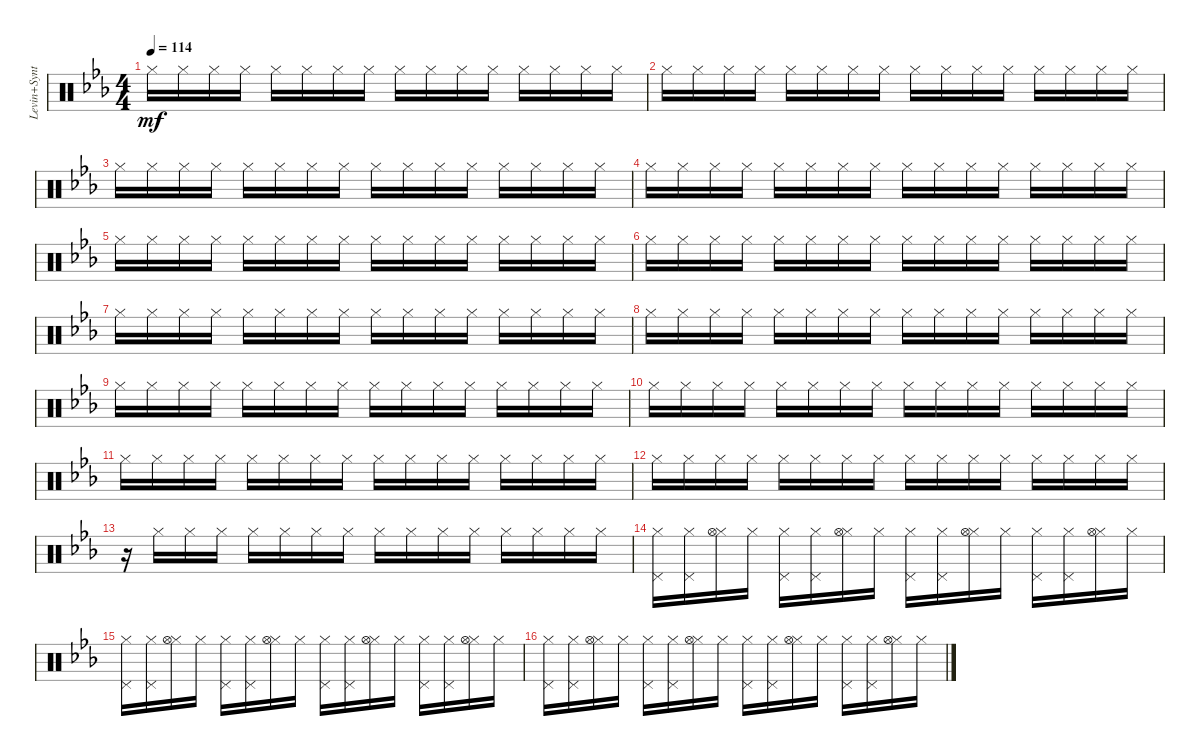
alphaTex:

\track ("Levin+Synth" "Levin+Synt") {instrument percussion}
\staff {score}
\articulation defaults
\ts (4 4)
\tempo 114
\clef neutral
\ks eb "Hi-Hat (closed)".16{dy mf} "Hi-Hat (closed)".16 "Hi-Hat (closed)".16 "Hi-Hat (closed)".16 "Hi-Hat (closed)".16 "Hi-Hat (closed)".16 "Hi-Hat (closed)".16 "Hi-Hat (closed)".16 "Hi-Hat (closed)".16 "Hi-Hat (closed)".16 "Hi-Hat (closed)".16 "Hi-Hat (closed)".16 "Hi-Hat (closed)".16 "Hi-Hat (closed)".16 "Hi-Hat (closed)".16 "Hi-Hat (closed)".16
|
"Hi-Hat (closed)".16 "Hi-Hat (closed)".16 "Hi-Hat (closed)".16 "Hi-Hat (closed)".16 "Hi-Hat (closed)".16 "Hi-Hat (closed)".16 "Hi-Hat (closed)".16 "Hi-Hat (closed)".16 "Hi-Hat (closed)".16 "Hi-Hat (closed)".16 "Hi-Hat (closed)".16 "Hi-Hat (closed)".16 "Hi-Hat (closed)".16 "Hi-Hat (closed)".16 "Hi-Hat (closed)".16 "Hi-Hat (closed)".16 |
"Hi-Hat (closed)".16 "Hi-Hat (closed)".16 "Hi-Hat (closed)".16 "Hi-Hat (closed)".16 "Hi-Hat (closed)".16 "Hi-Hat (closed)".16 "Hi-Hat (closed)".16 "Hi-Hat (closed)".16 "Hi-Hat (closed)".16 "Hi-Hat (closed)".16 "Hi-Hat (closed)".16 "Hi-Hat (closed)".16 "Hi-Hat (closed)".16 "Hi-Hat (closed)".16 "Hi-Hat (closed)".16 "Hi-Hat (closed)".16 |
"Hi-Hat (closed)".16 "Hi-Hat (closed)".16 "Hi-Hat (closed)".16 "Hi-Hat (closed)".16 "Hi-Hat (closed)".16 "Hi-Hat (closed)".16 "Hi-Hat (closed)".16 "Hi-Hat (closed)".16 "Hi-Hat (closed)".16 "Hi-Hat (closed)".16 "Hi-Hat (closed)".16 "Hi-Hat (closed)".16 "Hi-Hat (closed)".16 "Hi-Hat (closed)".16 "Hi-Hat (closed)".16 "Hi-Hat (closed)".16 |
"Hi-Hat (closed)".16 "Hi-Hat (closed)".16 "Hi-Hat (closed)".16 "Hi-Hat (closed)".16 "Hi-Hat (closed)".16 "Hi-Hat (closed)".16 "Hi-Hat (closed)".16 "Hi-Hat (closed)".16 "Hi-Hat (closed)".16 "Hi-Hat (closed)".16 "Hi-Hat (closed)".16 "Hi-Hat (closed)".16 "Hi-Hat (closed)".16 "Hi-Hat (closed)".16 "Hi-Hat (closed)".16 "Hi-Hat (closed)".16 |
"Hi-Hat (closed)".16 "Hi-Hat (closed)".16 "Hi-Hat (closed)".16 "Hi-Hat (closed)".16 "Hi-Hat (closed)".16 "Hi-Hat (closed)".16 "Hi-Hat (closed)".16 "Hi-Hat (closed)".16 "Hi-Hat (closed)".16 "Hi-Hat (closed)".16 "Hi-Hat (closed)".16 "Hi-Hat (closed)".16 "Hi-Hat (closed)".16 "Hi-Hat (closed)".16 "Hi-Hat (closed)".16 "Hi-Hat (closed)".16 |
"Hi-Hat (closed)".16 "Hi-Hat (closed)".16 "Hi-Hat (closed)".16 "Hi-Hat (closed)".16 "Hi-Hat (closed)".16 "Hi-Hat (closed)".16 "Hi-Hat (closed)".16 "Hi-Hat (closed)".16 "Hi-Hat (closed)".16 "Hi-Hat (closed)".16 "Hi-Hat (closed)".16 "Hi-Hat (closed)".16 "Hi-Hat (closed)".16 "Hi-Hat (closed)".16 "Hi-Hat (closed)".16 "Hi-Hat (closed)".16 |
"Hi-Hat (closed)".16 "Hi-Hat (closed)".16 "Hi-Hat (closed)".16 "Hi-Hat (closed)".16 "Hi-Hat (closed)".16 "Hi-Hat (closed)".16 "Hi-Hat (closed)".16 "Hi-Hat (closed)".16 "Hi-Hat (closed)".16 "Hi-Hat (closed)".16 "Hi-Hat (closed)".16 "Hi-Hat (closed)".16 "Hi-Hat (closed)".16 "Hi-Hat (closed)".16 "Hi-Hat (closed)".16 "Hi-Hat (closed)".16 |
"Hi-Hat (closed)".16 "Hi-Hat (closed)".16 "Hi-Hat (closed)".16 "Hi-Hat (closed)".16 "Hi-Hat (closed)".16 "Hi-Hat (closed)".16 "Hi-Hat (closed)".16 "Hi-Hat (closed)".16 "Hi-Hat (closed)".16 "Hi-Hat (closed)".16 "Hi-Hat (closed)".16 "Hi-Hat (closed)".16 "Hi-Hat (closed)".16 "Hi-Hat (closed)".16 "Hi-Hat (closed)".16 "Hi-Hat (closed)".16 |
"Hi-Hat (closed)".16 "Hi-Hat (closed)".16 "Hi-Hat (closed)".16 "Hi-Hat (closed)".16 "Hi-Hat (closed)".16 "Hi-Hat (closed)".16 "Hi-Hat (closed)".16 "Hi-Hat (closed)".16 "Hi-Hat (closed)".16 "Hi-Hat (closed)".16 "Hi-Hat (closed)".16 "Hi-Hat (closed)".16 "Hi-Hat (closed)".16 "Hi-Hat (closed)".16 "Hi-Hat (closed)".16 "Hi-Hat (closed)".16 |
"Hi-Hat (closed)".16 "Hi-Hat (closed)".16 "Hi-Hat (closed)".16 "Hi-Hat (closed)".16 "Hi-Hat (closed)".16 "Hi-Hat (closed)".16 "Hi-Hat (closed)".16 "Hi-Hat (closed)".16 "Hi-Hat (closed)".16 "Hi-Hat (closed)".16 "Hi-Hat (closed)".16 "Hi-Hat (closed)".16 "Hi-Hat (closed)".16 "Hi-Hat (closed)".16 "Hi-Hat (closed)".16 "Hi-Hat (closed)".16 |
"Hi-Hat (closed)".16 "Hi-Hat (closed)".16 "Hi-Hat (closed)".16 "Hi-Hat (closed)".16 "Hi-Hat (closed)".16 "Hi-Hat (closed)".16 "Hi-Hat (closed)".16 "Hi-Hat (closed)".16 "Hi-Hat (closed)".16 "Hi-Hat (closed)".16 "Hi-Hat (closed)".16 "Hi-Hat (closed)".16 "Hi-Hat (closed)".16 "Hi-Hat (closed)".16 "Hi-Hat (closed)".16 "Hi-Hat (closed)".16 |
r.16 "Hi-Hat (closed)".16 "Hi-Hat (closed)".16 "Hi-Hat (closed)".16 "Hi-Hat (closed)".16 "Hi-Hat (closed)".16 "Hi-Hat (closed)".16 "Hi-Hat (closed)".16 "Hi-Hat (closed)".16 "Hi-Hat (closed)".16 "Hi-Hat (closed)".16 "Hi-Hat (closed)".16 "Hi-Hat (closed)".16 "Hi-Hat (closed)".16 "Hi-Hat (closed)".16 "Hi-Hat (closed)".16 |
("Hi-Hat (closed)" "Pedal Hi-Hat (hit)").16 ("Hi-Hat (closed)" "Pedal Hi-Hat (hit)").16 ("Hi-Hat (closed)" "Hi-Hat (open)").16 "Hi-Hat (closed)".16 ("Hi-Hat (closed)" "Pedal Hi-Hat (hit)").16 ("Hi-Hat (closed)" "Pedal Hi-Hat (hit)").16 ("Hi-Hat (closed)" "Hi-Hat (open)").16 "Hi-Hat (closed)".16 ("Hi-Hat (closed)" "Pedal Hi-Hat (hit)").16 ("Hi-Hat (closed)" "Pedal Hi-Hat (hit)").16 ("Hi-Hat (closed)" "Hi-Hat (open)").16 "Hi-Hat (closed)".16 ("Hi-Hat (closed)" "Pedal Hi-Hat (hit)").16 ("Hi-Hat (closed)" "Pedal Hi-Hat (hit)").16 ("Hi-Hat (closed)" "Hi-Hat (open)").16 "Hi-Hat (closed)".16 |
("Hi-Hat (closed)" "Pedal Hi-Hat (hit)").16 ("Hi-Hat (closed)" "Pedal Hi-Hat (hit)").16 ("Hi-Hat (closed)" "Hi-Hat (open)").16 "Hi-Hat (closed)".16 ("Hi-Hat (closed)" "Pedal Hi-Hat (hit)").16 ("Hi-Hat (closed)" "Pedal Hi-Hat (hit)").16 ("Hi-Hat (closed)" "Hi-Hat (open)").16 "Hi-Hat (closed)".16 ("Hi-Hat (closed)" "Pedal Hi-Hat (hit)").16 ("Hi-Hat (closed)" "Pedal Hi-Hat (hit)").16 ("Hi-Hat (closed)" "Hi-Hat (open)").16 "Hi-Hat (closed)".16 ("Hi-Hat (closed)" "Pedal Hi-Hat (hit)").16 ("Hi-Hat (closed)" "Pedal Hi-Hat (hit)").16 ("Hi-Hat (closed)" "Hi-Hat (open)").16 "Hi-Hat (closed)".16 |
("Hi-Hat (closed)" "Pedal Hi-Hat (hit)").16 ("Hi-Hat (closed)" "Pedal Hi-Hat (hit)").16 ("Hi-Hat (closed)" "Hi-Hat (open)").16 "Hi-Hat (closed)".16 ("Hi-Hat (closed)" "Pedal Hi-Hat (hit)").16 ("Hi-Hat (closed)" "Pedal Hi-Hat (hit)").16 ("Hi-Hat (closed)" "Hi-Hat (open)").16 "Hi-Hat (closed)".16 ("Hi-Hat (closed)" "Pedal Hi-Hat (hit)").16 ("Hi-Hat (closed)" "Pedal Hi-Hat (hit)").16 ("Hi-Hat (closed)" "Hi-Hat (open)").16 "Hi-Hat (closed)".16 ("Hi-Hat (closed)" "Pedal Hi-Hat (hit)").16 ("Hi-Hat (closed)" "Pedal Hi-Hat (hit)").16 ("Hi-Hat (closed)" "Hi-Hat (open)").16 "Hi-Hat (closed)".16
